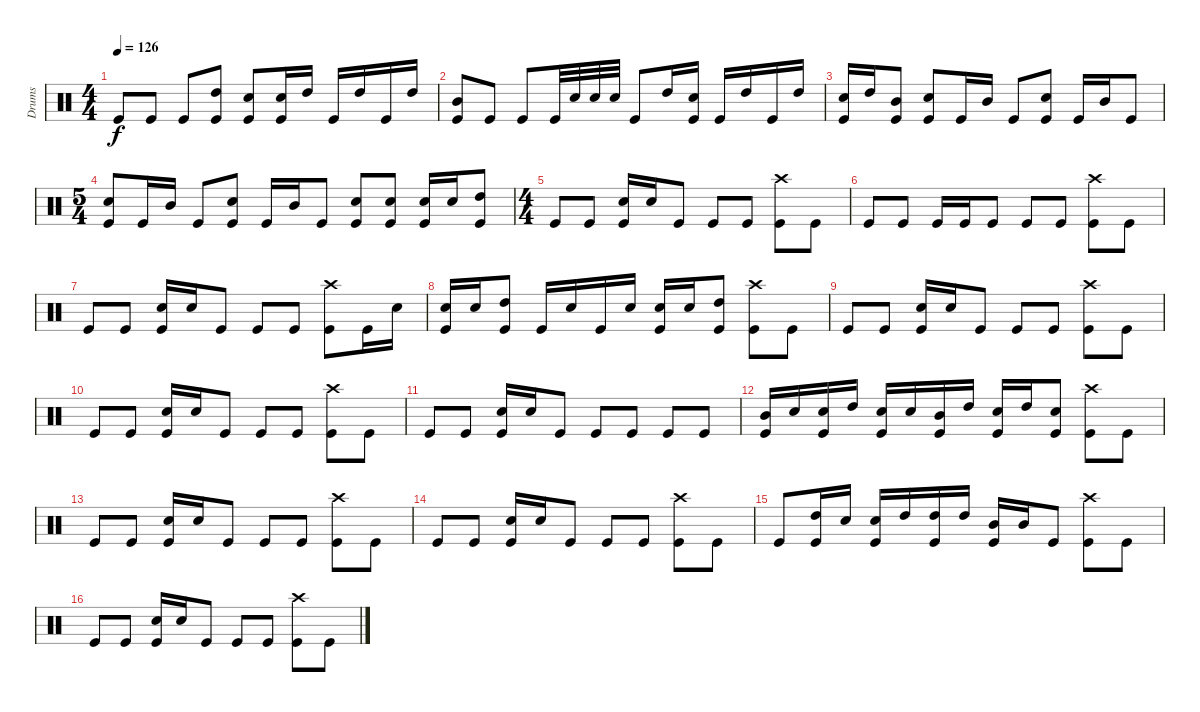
\track ("Drums" "Drums") {instrument percussion}
\staff {score}
\articulation defaults
\ts (4 4)
\tempo 126
\clef neutral
\ks c "Kick (hit)".8{dy f} "Kick (hit)".8 "Kick (hit)".8
("High Tom (hit)" "Kick (hit)").8 ("Electric Snare (hit)" "Kick (hit)").8 ("Electric Snare (hit)" "Kick (hit)").16 "High Tom (hit)".16 "Kick (hit)".16 "High Tom (hit)".16 "Kick (hit)".16 "High Tom (hit)".16 |
("Mid Tom (hit)" "Kick (hit)").8 "Kick (hit)".8 "Kick (hit)".8 "Kick (hit)".32 "Electric Snare (hit)".32 "Electric Snare (hit)".32 "Electric Snare (hit)".32 "Kick (hit)".8 "High Tom (hit)".16 ("Electric Snare (hit)" "Kick (hit)").16 "Kick (hit)".16 "High Tom (hit)".16 "Kick (hit)".16 "High Tom (hit)".16 |
("Electric Snare (hit)" "Kick (hit)").16 "High Tom (hit)".16 ("Mid Tom (hit)" "Kick (hit)").8 ("Electric Snare (hit)" "Kick (hit)").8 "Kick (hit)".16 "Mid Tom (hit)".16 "Kick (hit)".8 ("Snare (hit)" "Kick (hit)").8 "Kick (hit)".16 "Mid Tom (hit)".16 "Kick (hit)".8 |
\ts (5 4)
("Electric Snare (hit)" "Kick (hit)").8 "Kick (hit)".16 "Mid Tom (hit)".16 "Kick (hit)".8 ("Electric Snare (hit)" "Kick (hit)").8 "Kick (hit)".16 "Mid Tom (hit)".16 "Kick (hit)".8 ("Electric Snare (hit)" "Kick (hit)").8 ("Electric Snare (hit)" "Kick (hit)").8 ("Electric Snare (hit)" "Kick (hit)").16 "Electric Snare (hit)".16 ("High Tom (hit)" "Kick (hit)").8 |
\ts (4 4)
"Kick (hit)".8 "Kick (hit)".8 ("Electric Snare (hit)" "Kick (hit)").16 "Electric Snare (hit)".16 "Kick (hit)".8 "Kick (hit)".8 "Kick (hit)".8 ("Crash high (hit)" "Kick (hit)").8 "Kick (hit)".8 |
"Kick (hit)".8 "Kick (hit)".8 "Kick (hit)".16 "Kick (hit)".16 "Kick (hit)".8 "Kick (hit)".8 "Kick (hit)".8 ("Crash high (hit)" "Kick (hit)").8 "Kick (hit)".8 |
"Kick (hit)".8 "Kick (hit)".8 ("Electric Snare (hit)" "Kick (hit)").16 "Electric Snare (hit)".16 "Kick (hit)".8 "Kick (hit)".8 "Kick (hit)".8 ("Crash high (hit)" "Kick (hit)").8 "Kick (hit)".16 "Electric Snare (hit)".16 |
("Electric Snare (hit)" "Kick (hit)").16 "Electric Snare (hit)".16 ("High Tom (hit)" "Kick (hit)").8 "Kick (hit)".16 "Electric Snare (hit)".16 "Kick (hit)".16 "Electric Snare (hit)".16 ("Electric Snare (hit)" "Kick (hit)").16 "Electric Snare (hit)".16 ("High Tom (hit)" "Kick (hit)").8 ("Crash high (hit)" "Kick (hit)").8 "Kick (hit)".8 |
"Kick (hit)".8 "Kick (hit)".8 ("Electric Snare (hit)" "Kick (hit)").16 "Electric Snare (hit)".16 "Kick (hit)".8 "Kick (hit)".8 "Kick (hit)".8 ("Crash high (hit)" "Kick (hit)").8 "Kick (hit)".8 |
"Kick (hit)".8 "Kick (hit)".8 ("Electric Snare (hit)" "Kick (hit)").16 "Electric Snare (hit)".16 "Kick (hit)".8 "Kick (hit)".8 "Kick (hit)".8 ("Crash high (hit)" "Kick (hit)").8 "Kick (hit)".8 |
"Kick (hit)".8 "Kick (hit)".8 ("Electric Snare (hit)" "Kick (hit)").16 "Electric Snare (hit)".16 "Kick (hit)".8 "Kick (hit)".8 "Kick (hit)".8 "Kick (hit)".8 "Kick (hit)".8 |
("Mid Tom (hit)" "Kick (hit)").16 "Electric Snare (hit)".16 ("Electric Snare (hit)" "Kick (hit)").16 "High Tom (hit)".16 ("Electric Snare (hit)" "Kick (hit)").16 "Electric Snare (hit)".16 ("Mid Tom (hit)" "Kick (hit)").16 "High Tom (hit)".16 ("Electric Snare (hit)" "Kick (hit)").16 "High Tom (hit)".16 ("Electric Snare (hit)" "Kick (hit)").8 ("Crash high (hit)" "Kick (hit)").8 "Kick (hit)".8 |
"Kick (hit)".8 "Kick (hit)".8 ("Electric Snare (hit)" "Kick (hit)").16 "Electric Snare (hit)".16 "Kick (hit)".8 "Kick (hit)".8 "Kick (hit)".8 ("Crash high (hit)" "Kick (hit)").8 "Kick (hit)".8 |
"Kick (hit)".8 "Kick (hit)".8 ("Electric Snare (hit)" "Kick (hit)").16 "Electric Snare (hit)".16 "Kick (hit)".8 "Kick (hit)".8 "Kick (hit)".8 ("Crash high (hit)" "Kick (hit)").8 "Kick (hit)".8 |
"Kick (hit)".8 ("High Tom (hit)" "Kick (hit)").16 "Electric Snare (hit)".16 ("Electric Snare (hit)" "Kick (hit)").16 "High Tom (hit)".16 ("High Tom (hit)" "Kick (hit)").16 "High Tom (hit)".16 ("Mid Tom (hit)" "Kick (hit)").16 "Mid Tom (hit)".16 "Kick (hit)".8 ("Crash high (hit)" "Kick (hit)").8 "Kick (hit)".8 |
"Kick (hit)".8 "Kick (hit)".8 ("Electric Snare (hit)" "Kick (hit)").16 "Electric Snare (hit)".16 "Kick (hit)".8 "Kick (hit)".8 "Kick (hit)".8 ("Crash high (hit)" "Kick (hit)").8 "Kick (hit)".8
